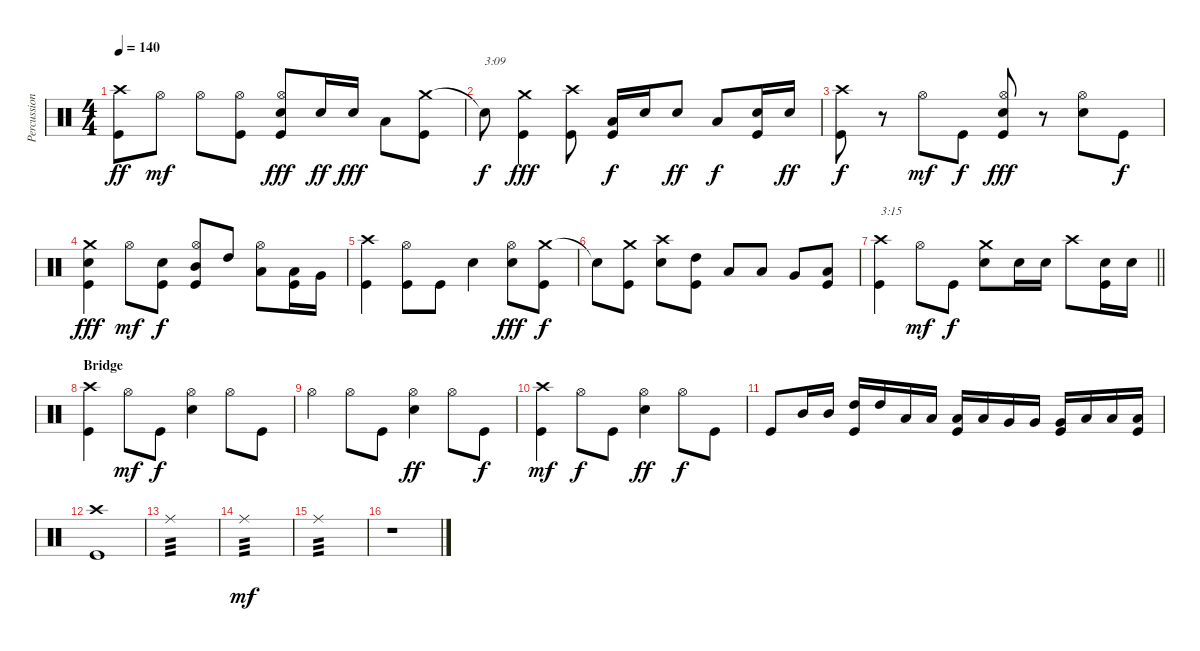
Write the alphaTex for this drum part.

\track ("Percussion" "Percussion") {instrument percussion}
\staff {score}
\articulation defaults
\ts (4 4)
\tempo 140
\clef neutral
\ks c
("Crash high (hit)" "Kick (hit)").8{dy ff} "Hi-Hat (open)".8{dy mf} "Hi-Hat (open)".8 ("Hi-Hat (open)" "Kick (hit)").8 ("Hi-Hat (open)" "Electric Snare (hit)" "Kick (hit)").8{dy fff} "Electric Snare (hit)".16{dy ff} "Electric Snare (hit)".16{dy fff} "Low Tom (hit)".8 ("Crash medium (hit)" "Kick (hit)").8 |
"Snare (hit)"{t}.8{txt "3:09" dy f} ("Crash medium (hit)" "Kick (hit)").4{dy fff} ("Crash high (hit)" "Kick (hit)").8 ("Low Tom (hit)" "Kick (hit)").16{dy f} "Electric Snare (hit)".16 "Electric Snare (hit)".8{dy ff} "Low Tom (hit)".8{dy f} ("Electric Snare (hit)" "Kick (hit)").16 "Electric Snare (hit)".16{dy ff} |
("Crash high (hit)" "Kick (hit)").8{dy f} r.8 "Hi-Hat (open)".8{dy mf} "Kick (hit)".8{dy f} ("Hi-Hat (open)" "Electric Snare (hit)" "Kick (hit)").8{dy fff} r.8 ("Hi-Hat (open)" "Electric Snare (hit)").8 "Kick (hit)".8{dy f} |
("Crash medium (hit)" "Electric Snare (hit)" "Kick (hit)").4{dy fff} "Hi-Hat (open)".8{dy mf} ("Electric Snare (hit)" "Kick (hit)").8{dy f} ("Hi-Hat (open)" "Mid Tom (hit)" "Kick (hit)").8 "High Tom (hit)".8 ("Hi-Hat (open)" "Low Tom (hit)").8 ("Low Tom (hit)" "Kick (hit)").16 "Very Low Tom (hit)".16 |
("Crash high (hit)" "Kick (hit)").4 ("Hi-Hat (open)" "Kick (hit)").8 "Kick (hit)".8 "Electric Snare (hit)".4 ("Hi-Hat (open)" "Electric Snare (hit)").8{dy fff} ("Crash medium (hit)" "Kick (hit)").8{dy f} |
"Snare (hit)"{t}.8 ("Crash medium (hit)" "Kick (hit)").8 ("Crash high (hit)" "Electric Snare (hit)").8 ("High Tom (hit)" "Kick (hit)").8 "Low Tom (hit)".8 "Low Tom (hit)".8 "Very Low Tom (hit)".8 ("Low Floor Tom (hit)" "Kick (hit)").8 |
\barLineRight lightlight
("Crash high (hit)" "Kick (hit)").4{txt "3:15"} "Hi-Hat (open)".8{dy mf} "Kick (hit)".8{dy f} ("Crash medium (hit)" "Electric Snare (hit)").8 "Electric Snare (hit)".16 "Electric Snare (hit)".16 "Crash high (hit)".8 ("Electric Snare (hit)" "Kick (hit)").16 "Electric Snare (hit)".16 |
\section ("" "Bridge")
("Crash high (hit)" "Kick (hit)").4 "Hi-Hat (open)".8{dy mf} "Kick (hit)".8{dy f} ("Hi-Hat (open)" "Electric Snare (hit)").4 "Hi-Hat (open)".8 "Kick (hit)".8 |
"Hi-Hat (open)".4 "Hi-Hat (open)".8 "Kick (hit)".8 ("Hi-Hat (open)" "Electric Snare (hit)").4{dy ff} "Hi-Hat (open)".8 "Kick (hit)".8{dy f} |
("Crash high (hit)" "Kick (hit)").4{dy mf} "Hi-Hat (open)".8{dy f} "Kick (hit)".8 ("Hi-Hat (open)" "Electric Snare (hit)").4{dy ff} "Hi-Hat (open)".8{dy f} "Kick (hit)".8 |
"Kick (hit)".8 "Mid Tom (hit)".16 "Mid Tom (hit)".16 ("High Tom (hit)" "Kick (hit)").16 "High Tom (hit)".16 "Low Tom (hit)".16 "Low Tom (hit)".16 ("Low Tom (hit)" "Kick (hit)").16 "Low Tom (hit)".16 "Very Low Tom (hit)".16 "Very Low Tom (hit)".16 ("Very Low Tom (hit)" "Kick (hit)").16 "Low Floor Tom (hit)".16 "Low Floor Tom (hit)".16 ("Low Floor Tom (hit)" "Kick (hit)").16 |
("Crash high (hit)" "Kick (hit)").1 |
"Ride (middle)".1{tp 3} |
"Ride (middle)".1{tp 3 dy mf} |
"Ride (middle)".1{tp 3} |
r.1
